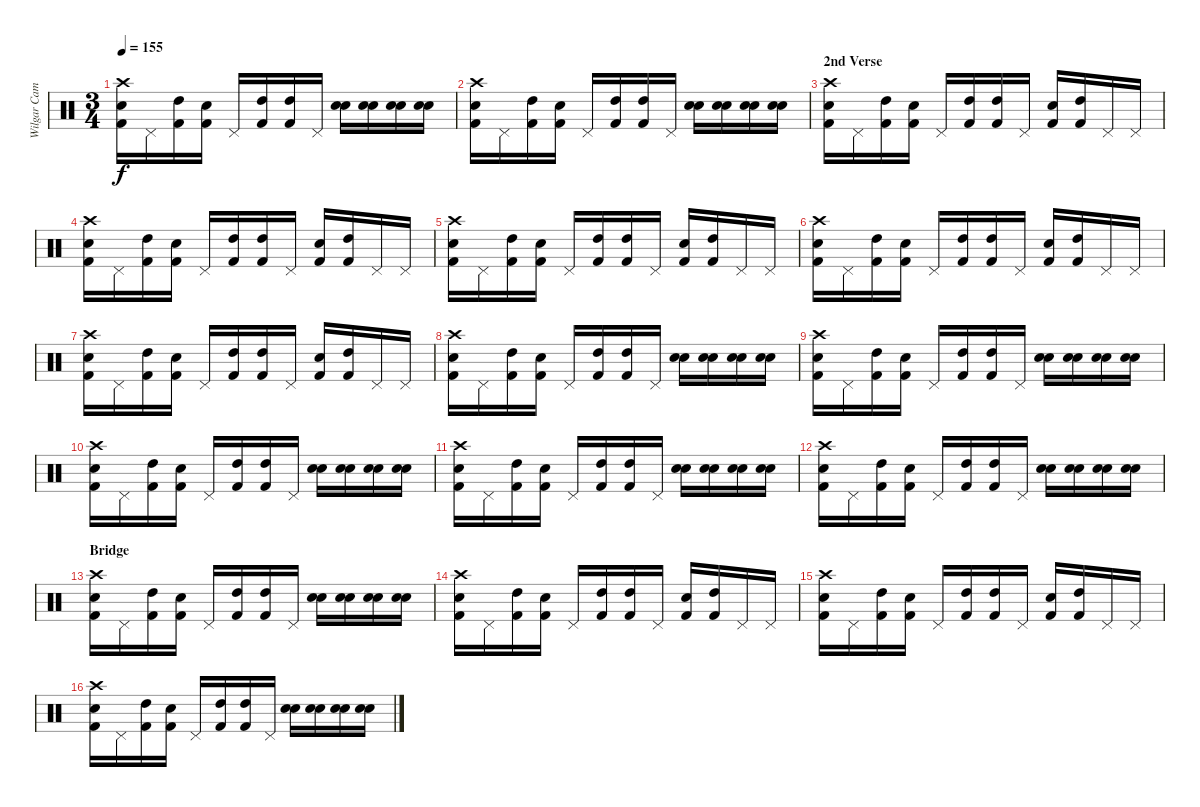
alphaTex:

\track ("Wilgar Campbell" "Wilgar Cam") {instrument percussion}
\staff {score}
\articulation defaults
\ts (3 4)
\tempo 155
\clef neutral
\ks c
("Kick (hit) 2" "Snare (hit) 2" "Crash high (hit)").16{dy f} "Pedal Hi-Hat (hit)".16 ("Kick (hit) 2" "High Tom (hit)").16 ("Kick (hit) 2" "Snare (hit) 2").16 "Pedal Hi-Hat (hit)".16 ("High Tom (hit)" "Kick (hit) 2").16 ("High Tom (hit)" "Kick (hit) 2").16 "Pedal Hi-Hat (hit)".16 ("Electric Snare (hit)" "Electric Snare (hit)").16 ("Electric Snare (hit)" "Electric Snare (hit)").16 ("Electric Snare (hit)" "Electric Snare (hit)").16 ("Electric Snare (hit)" "Electric Snare (hit)").16 |
("Kick (hit) 2" "Snare (hit) 2" "Crash high (hit)").16 "Pedal Hi-Hat (hit)".16 ("Kick (hit) 2" "High Tom (hit)").16 ("Kick (hit) 2" "Snare (hit) 2").16 "Pedal Hi-Hat (hit)".16 ("High Tom (hit)" "Kick (hit) 2").16 ("High Tom (hit)" "Kick (hit) 2").16 "Pedal Hi-Hat (hit)".16 ("Electric Snare (hit)" "Electric Snare (hit)").16 ("Electric Snare (hit)" "Electric Snare (hit)").16 ("Electric Snare (hit)" "Electric Snare (hit)").16 ("Electric Snare (hit)" "Electric Snare (hit)").16 |
\section ("" "2nd Verse")
("Kick (hit) 2" "Snare (hit) 2" "Crash high (hit)").16 "Pedal Hi-Hat (hit)".16 ("Kick (hit) 2" "High Tom (hit)").16 ("Kick (hit) 2" "Snare (hit) 2").16 "Pedal Hi-Hat (hit)".16 ("High Tom (hit)" "Kick (hit) 2").16 ("High Tom (hit)" "Kick (hit) 2").16 "Pedal Hi-Hat (hit)".16 ("Electric Snare (hit)" "Kick (hit) 2").16 ("High Tom (hit)" "Kick (hit) 2").16 "Pedal Hi-Hat (hit)".16 "Pedal Hi-Hat (hit)".16 |
("Kick (hit) 2" "Snare (hit) 2" "Crash high (hit)").16 "Pedal Hi-Hat (hit)".16 ("Kick (hit) 2" "High Tom (hit)").16 ("Kick (hit) 2" "Snare (hit) 2").16 "Pedal Hi-Hat (hit)".16 ("High Tom (hit)" "Kick (hit) 2").16 ("High Tom (hit)" "Kick (hit) 2").16 "Pedal Hi-Hat (hit)".16 ("Electric Snare (hit)" "Kick (hit) 2").16 ("High Tom (hit)" "Kick (hit) 2").16 "Pedal Hi-Hat (hit)".16 "Pedal Hi-Hat (hit)".16 |
("Kick (hit) 2" "Snare (hit) 2" "Crash high (hit)").16 "Pedal Hi-Hat (hit)".16 ("Kick (hit) 2" "High Tom (hit)").16 ("Kick (hit) 2" "Snare (hit) 2").16 "Pedal Hi-Hat (hit)".16 ("High Tom (hit)" "Kick (hit) 2").16 ("High Tom (hit)" "Kick (hit) 2").16 "Pedal Hi-Hat (hit)".16 ("Electric Snare (hit)" "Kick (hit) 2").16 ("High Tom (hit)" "Kick (hit) 2").16 "Pedal Hi-Hat (hit)".16 "Pedal Hi-Hat (hit)".16 |
("Kick (hit) 2" "Snare (hit) 2" "Crash high (hit)").16 "Pedal Hi-Hat (hit)".16 ("Kick (hit) 2" "High Tom (hit)").16 ("Kick (hit) 2" "Snare (hit) 2").16 "Pedal Hi-Hat (hit)".16 ("High Tom (hit)" "Kick (hit) 2").16 ("High Tom (hit)" "Kick (hit) 2").16 "Pedal Hi-Hat (hit)".16 ("Electric Snare (hit)" "Kick (hit) 2").16 ("High Tom (hit)" "Kick (hit) 2").16 "Pedal Hi-Hat (hit)".16 "Pedal Hi-Hat (hit)".16 |
("Kick (hit) 2" "Snare (hit) 2" "Crash high (hit)").16 "Pedal Hi-Hat (hit)".16 ("Kick (hit) 2" "High Tom (hit)").16 ("Kick (hit) 2" "Snare (hit) 2").16 "Pedal Hi-Hat (hit)".16 ("High Tom (hit)" "Kick (hit) 2").16 ("High Tom (hit)" "Kick (hit) 2").16 "Pedal Hi-Hat (hit)".16 ("Electric Snare (hit)" "Kick (hit) 2").16 ("High Tom (hit)" "Kick (hit) 2").16 "Pedal Hi-Hat (hit)".16 "Pedal Hi-Hat (hit)".16 |
("Kick (hit) 2" "Snare (hit) 2" "Crash high (hit)").16 "Pedal Hi-Hat (hit)".16 ("Kick (hit) 2" "High Tom (hit)").16 ("Kick (hit) 2" "Snare (hit) 2").16 "Pedal Hi-Hat (hit)".16 ("High Tom (hit)" "Kick (hit) 2").16 ("High Tom (hit)" "Kick (hit) 2").16 "Pedal Hi-Hat (hit)".16 ("Electric Snare (hit)" "Electric Snare (hit)").16 ("Electric Snare (hit)" "Electric Snare (hit)").16 ("Electric Snare (hit)" "Electric Snare (hit)").16 ("Electric Snare (hit)" "Electric Snare (hit)").16 |
("Kick (hit) 2" "Snare (hit) 2" "Crash high (hit)").16 "Pedal Hi-Hat (hit)".16 ("Kick (hit) 2" "High Tom (hit)").16 ("Kick (hit) 2" "Snare (hit) 2").16 "Pedal Hi-Hat (hit)".16 ("High Tom (hit)" "Kick (hit) 2").16 ("High Tom (hit)" "Kick (hit) 2").16 "Pedal Hi-Hat (hit)".16 ("Electric Snare (hit)" "Electric Snare (hit)").16 ("Electric Snare (hit)" "Electric Snare (hit)").16 ("Electric Snare (hit)" "Electric Snare (hit)").16 ("Electric Snare (hit)" "Electric Snare (hit)").16 |
("Kick (hit) 2" "Snare (hit) 2" "Crash high (hit)").16 "Pedal Hi-Hat (hit)".16 ("Kick (hit) 2" "High Tom (hit)").16 ("Kick (hit) 2" "Snare (hit) 2").16 "Pedal Hi-Hat (hit)".16 ("High Tom (hit)" "Kick (hit) 2").16 ("High Tom (hit)" "Kick (hit) 2").16 "Pedal Hi-Hat (hit)".16 ("Electric Snare (hit)" "Electric Snare (hit)").16 ("Electric Snare (hit)" "Electric Snare (hit)").16 ("Electric Snare (hit)" "Electric Snare (hit)").16 ("Electric Snare (hit)" "Electric Snare (hit)").16 |
("Kick (hit) 2" "Snare (hit) 2" "Crash high (hit)").16 "Pedal Hi-Hat (hit)".16 ("Kick (hit) 2" "High Tom (hit)").16 ("Kick (hit) 2" "Snare (hit) 2").16 "Pedal Hi-Hat (hit)".16 ("High Tom (hit)" "Kick (hit) 2").16 ("High Tom (hit)" "Kick (hit) 2").16 "Pedal Hi-Hat (hit)".16 ("Electric Snare (hit)" "Electric Snare (hit)").16 ("Electric Snare (hit)" "Electric Snare (hit)").16 ("Electric Snare (hit)" "Electric Snare (hit)").16 ("Electric Snare (hit)" "Electric Snare (hit)").16 |
("Kick (hit) 2" "Snare (hit) 2" "Crash high (hit)").16 "Pedal Hi-Hat (hit)".16 ("Kick (hit) 2" "High Tom (hit)").16 ("Kick (hit) 2" "Snare (hit) 2").16 "Pedal Hi-Hat (hit)".16 ("High Tom (hit)" "Kick (hit) 2").16 ("High Tom (hit)" "Kick (hit) 2").16 "Pedal Hi-Hat (hit)".16 ("Electric Snare (hit)" "Electric Snare (hit)").16 ("Electric Snare (hit)" "Electric Snare (hit)").16 ("Electric Snare (hit)" "Electric Snare (hit)").16 ("Electric Snare (hit)" "Electric Snare (hit)").16 |
\section ("" "Bridge")
("Kick (hit) 2" "Snare (hit) 2" "Crash high (hit)").16 "Pedal Hi-Hat (hit)".16 ("Kick (hit) 2" "High Tom (hit)").16 ("Kick (hit) 2" "Snare (hit) 2").16 "Pedal Hi-Hat (hit)".16 ("High Tom (hit)" "Kick (hit) 2").16 ("High Tom (hit)" "Kick (hit) 2").16 "Pedal Hi-Hat (hit)".16 ("Electric Snare (hit)" "Electric Snare (hit)").16 ("Electric Snare (hit)" "Electric Snare (hit)").16 ("Electric Snare (hit)" "Electric Snare (hit)").16 ("Electric Snare (hit)" "Electric Snare (hit)").16 |
("Kick (hit) 2" "Snare (hit) 2" "Crash high (hit)").16 "Pedal Hi-Hat (hit)".16 ("Kick (hit) 2" "High Tom (hit)").16 ("Kick (hit) 2" "Snare (hit) 2").16 "Pedal Hi-Hat (hit)".16 ("High Tom (hit)" "Kick (hit) 2").16 ("High Tom (hit)" "Kick (hit) 2").16 "Pedal Hi-Hat (hit)".16 ("Electric Snare (hit)" "Kick (hit) 2").16 ("High Tom (hit)" "Kick (hit) 2").16 "Pedal Hi-Hat (hit)".16 "Pedal Hi-Hat (hit)".16 |
("Kick (hit) 2" "Snare (hit) 2" "Crash high (hit)").16 "Pedal Hi-Hat (hit)".16 ("Kick (hit) 2" "High Tom (hit)").16 ("Kick (hit) 2" "Snare (hit) 2").16 "Pedal Hi-Hat (hit)".16 ("High Tom (hit)" "Kick (hit) 2").16 ("High Tom (hit)" "Kick (hit) 2").16 "Pedal Hi-Hat (hit)".16 ("Electric Snare (hit)" "Kick (hit) 2").16 ("High Tom (hit)" "Kick (hit) 2").16 "Pedal Hi-Hat (hit)".16 "Pedal Hi-Hat (hit)".16 |
("Kick (hit) 2" "Snare (hit) 2" "Crash high (hit)").16 "Pedal Hi-Hat (hit)".16 ("Kick (hit) 2" "High Tom (hit)").16 ("Kick (hit) 2" "Snare (hit) 2").16 "Pedal Hi-Hat (hit)".16 ("High Tom (hit)" "Kick (hit) 2").16 ("High Tom (hit)" "Kick (hit) 2").16 "Pedal Hi-Hat (hit)".16 ("Electric Snare (hit)" "Electric Snare (hit)").16 ("Electric Snare (hit)" "Electric Snare (hit)").16 ("Electric Snare (hit)" "Electric Snare (hit)").16 ("Electric Snare (hit)" "Electric Snare (hit)").16
